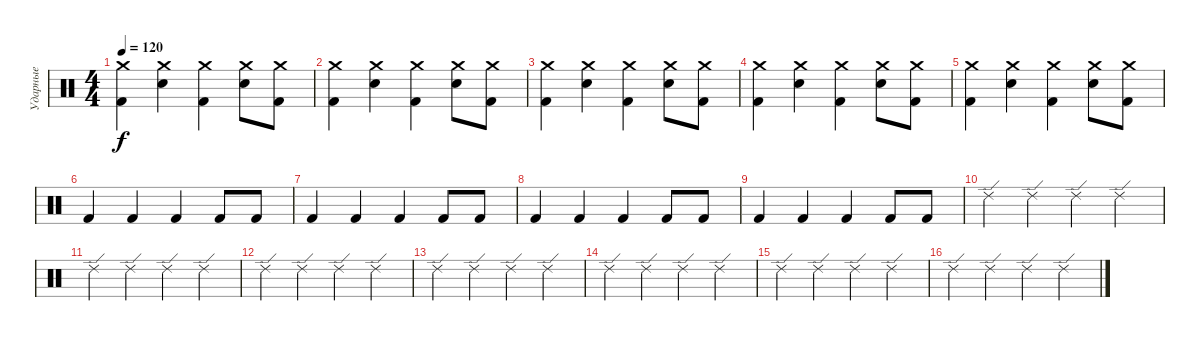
\track ("Ударные" "Ударные") {instrument percussion}
\staff {score}
\articulation defaults
\ts (4 4)
\tempo 120
\clef neutral
\ks c
("Crash medium (hit)" "Kick (hit) 2").4{dy f} ("Crash medium (hit)" "Electric Snare (hit)").4 ("Crash medium (hit)" "Kick (hit) 2").4 ("Crash medium (hit)" "Electric Snare (hit)").8 ("Crash medium (hit)" "Kick (hit) 2").8 |
("Crash medium (hit)" "Kick (hit) 2").4 ("Crash medium (hit)" "Electric Snare (hit)").4 ("Crash medium (hit)" "Kick (hit) 2").4 ("Crash medium (hit)" "Electric Snare (hit)").8 ("Crash medium (hit)" "Kick (hit) 2").8 |
("Crash medium (hit)" "Kick (hit) 2").4 ("Crash medium (hit)" "Electric Snare (hit)").4 ("Crash medium (hit)" "Kick (hit) 2").4 ("Crash medium (hit)" "Electric Snare (hit)").8 ("Crash medium (hit)" "Kick (hit) 2").8 |
("Crash medium (hit)" "Kick (hit) 2").4 ("Crash medium (hit)" "Electric Snare (hit)").4 ("Crash medium (hit)" "Kick (hit) 2").4 ("Crash medium (hit)" "Electric Snare (hit)").8 ("Crash medium (hit)" "Kick (hit) 2").8 |
("Crash medium (hit)" "Kick (hit) 2").4 ("Crash medium (hit)" "Electric Snare (hit)").4 ("Crash medium (hit)" "Kick (hit) 2").4 ("Crash medium (hit)" "Electric Snare (hit)").8 ("Crash medium (hit)" "Kick (hit) 2").8 |
"Kick (hit) 2".4 "Kick (hit) 2".4 "Kick (hit) 2".4 "Kick (hit) 2".8 "Kick (hit) 2".8 |
"Kick (hit) 2".4 "Kick (hit) 2".4 "Kick (hit) 2".4 "Kick (hit) 2".8 "Kick (hit) 2".8 |
"Kick (hit) 2".4 "Kick (hit) 2".4 "Kick (hit) 2".4 "Kick (hit) 2".8 "Kick (hit) 2".8 |
"Kick (hit) 2".4 "Kick (hit) 2".4 "Kick (hit) 2".4 "Kick (hit) 2".8 "Kick (hit) 2".8 |
"Ride (edge) 2".4 "Ride (edge) 2".4 "Ride (edge) 2".4 "Ride (edge) 2".4 |
"Ride (edge) 2".4 "Ride (edge) 2".4 "Ride (edge) 2".4 "Ride (edge) 2".4 |
"Ride (edge) 2".4 "Ride (edge) 2".4 "Ride (edge) 2".4 "Ride (edge) 2".4 |
"Ride (edge) 2".4 "Ride (edge) 2".4 "Ride (edge) 2".4 "Ride (edge) 2".4 |
"Ride (edge) 2".4 "Ride (edge) 2".4 "Ride (edge) 2".4 "Ride (edge) 2".4 |
"Ride (edge) 2".4 "Ride (edge) 2".4 "Ride (edge) 2".4 "Ride (edge) 2".4 |
"Ride (edge) 2".4 "Ride (edge) 2".4 "Ride (edge) 2".4 "Ride (edge) 2".4
